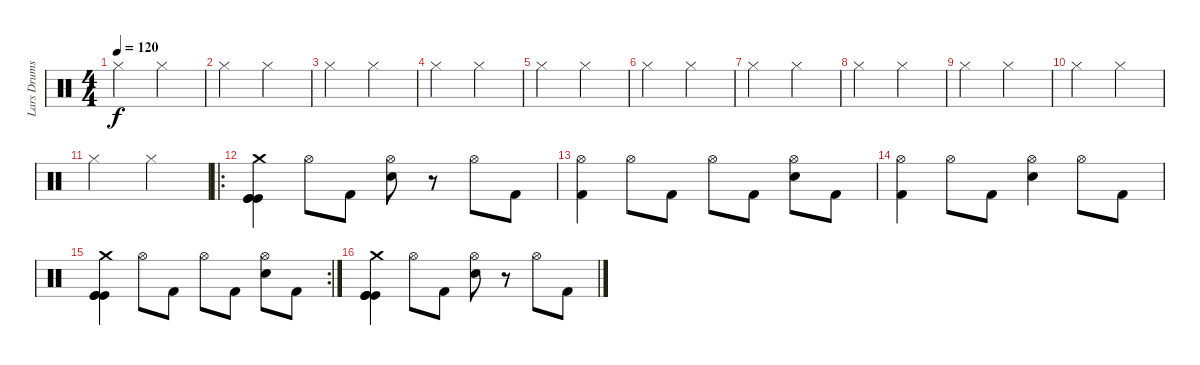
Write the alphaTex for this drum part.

\track ("Lars Drums" "Lars Drums") {instrument percussion}
\staff {score}
\articulation defaults
\ts (4 4)
\tempo 120
\clef neutral
\ks c "Hi-Hat (closed)".2{dy f} "Hi-Hat (closed)".2
|
"Hi-Hat (closed)".2 "Hi-Hat (closed)".2 |
"Hi-Hat (closed)".2 "Hi-Hat (closed)".2 |
"Hi-Hat (closed)".2 "Hi-Hat (closed)".2 |
"Hi-Hat (closed)".2 "Hi-Hat (closed)".2 |
"Hi-Hat (closed)".2 "Hi-Hat (closed)".2 |
"Hi-Hat (closed)".2 "Hi-Hat (closed)".2 |
"Hi-Hat (closed)".2 "Hi-Hat (closed)".2 |
"Hi-Hat (closed)".2 "Hi-Hat (closed)".2 |
"Hi-Hat (closed)".2 "Hi-Hat (closed)".2 |
"Hi-Hat (closed)".2 "Hi-Hat (closed)".2 |
\ro
("Kick (hit)" "Kick (hit)" "Kick (hit)" "Crash medium (hit)").4 "Hi-Hat (open)".8 "Kick (hit) 2".8 ("Hi-Hat (open)" "Electric Snare (hit)").8 r.8 "Hi-Hat (open)".8 "Kick (hit) 2".8 |
("Hi-Hat (open)" "Kick (hit) 2").4 "Hi-Hat (open)".8 "Kick (hit) 2".8 "Hi-Hat (open)".8 "Kick (hit) 2".8 ("Hi-Hat (open)" "Electric Snare (hit)").8 "Kick (hit) 2".8 |
("Hi-Hat (open)" "Kick (hit) 2").4 "Hi-Hat (open)".8 "Kick (hit) 2".8 ("Hi-Hat (open)" "Electric Snare (hit)").4 "Hi-Hat (open)".8 "Kick (hit) 2".8 |
\rc 2
("Kick (hit)" "Kick (hit)" "Kick (hit)" "Crash medium (hit)").4 "Hi-Hat (open)".8 "Kick (hit) 2".8 "Hi-Hat (open)".8 "Kick (hit) 2".8 ("Hi-Hat (open)" "Electric Snare (hit)").8 "Kick (hit) 2".8 |
("Kick (hit)" "Kick (hit)" "Kick (hit)" "Crash medium (hit)").4 "Hi-Hat (open)".8 "Kick (hit) 2".8 ("Hi-Hat (open)" "Electric Snare (hit)").8 r.8 "Hi-Hat (open)".8 "Kick (hit) 2".8
